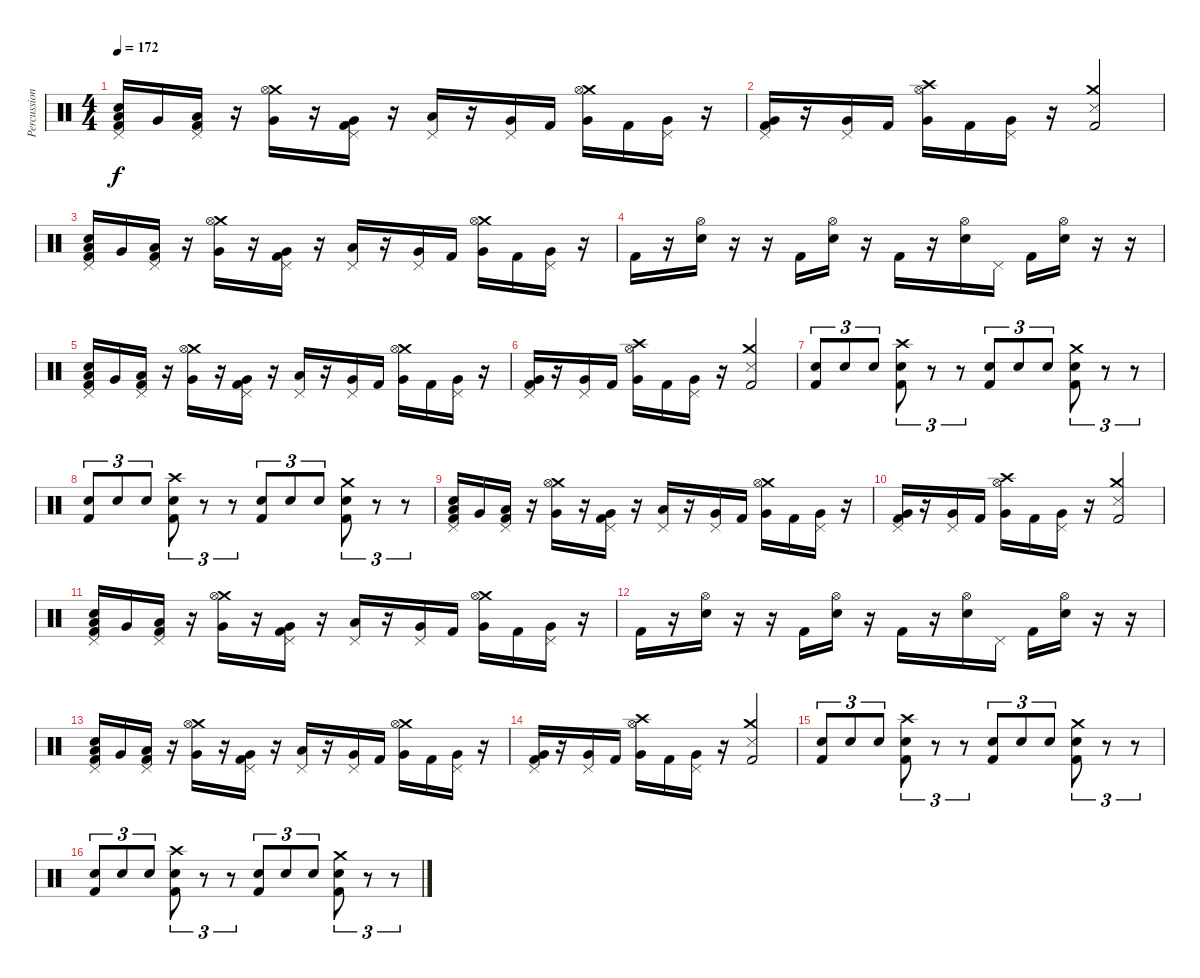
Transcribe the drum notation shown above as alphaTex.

\track ("Percussion" "Percussion") {instrument percussion}
\staff {score}
\articulation defaults
\ts (4 4)
\tempo 172
\clef neutral
\ks c
("Pedal Hi-Hat (hit)" "Low Tom (hit)" "Snare (hit) 2" "Kick (hit) 2").16{dy f} "Very Low Tom (hit)".16 ("Pedal Hi-Hat (hit)" "Low Floor Tom (hit)" "Kick (hit) 2").16 r.16 ("Crash medium (hit)" "Hi-Hat (open)" "Very Low Tom (hit)").16 r.16 ("Pedal Hi-Hat (hit)" "Very Low Tom (hit)" "Kick (hit) 2").16 r.16 ("Pedal Hi-Hat (hit)" "Low Tom (hit)").16 r.16 ("Pedal Hi-Hat (hit)" "Very Low Tom (hit)").16 "Kick (hit) 2".16 ("Crash medium (hit)" "Hi-Hat (open)" "Very Low Tom (hit)").16 "Kick (hit) 2".16 ("Pedal Hi-Hat (hit)" "Very Low Tom (hit)").16 r.16 |
("Pedal Hi-Hat (hit)" "Very Low Tom (hit)" "Kick (hit) 2").16 r.16 ("Pedal Hi-Hat (hit)" "Very Low Tom (hit)").16 "Kick (hit) 2".16 ("Crash high (hit)" "Hi-Hat (open)" "Very Low Tom (hit)").16 "Kick (hit) 2".16 ("Pedal Hi-Hat (hit)" "Very Low Tom (hit)").16 r.16 ("Crash medium (hit)" "Snare (side stick) 3" "Kick (hit) 2").2 |
("Pedal Hi-Hat (hit)" "Low Tom (hit)" "Snare (hit) 2" "Kick (hit) 2").16 "Very Low Tom (hit)".16 ("Pedal Hi-Hat (hit)" "Low Floor Tom (hit)" "Kick (hit) 2").16 r.16 ("Crash medium (hit)" "Hi-Hat (open)" "Very Low Tom (hit)").16 r.16 ("Pedal Hi-Hat (hit)" "Very Low Tom (hit)" "Kick (hit) 2").16 r.16 ("Pedal Hi-Hat (hit)" "Low Tom (hit)").16 r.16 ("Pedal Hi-Hat (hit)" "Very Low Tom (hit)").16 "Kick (hit) 2".16 ("Crash medium (hit)" "Hi-Hat (open)" "Very Low Tom (hit)").16 "Kick (hit) 2".16 ("Pedal Hi-Hat (hit)" "Very Low Tom (hit)").16 r.16 |
"Kick (hit) 2".16 r.16 ("Hi-Hat (open)" "Snare (hit) 2").16 r.16 r.16 "Kick (hit) 2".16 ("Hi-Hat (open)" "Snare (hit) 2").16 r.16 "Kick (hit) 2".16 r.16 ("Hi-Hat (open)" "Snare (hit) 2").16 "Pedal Hi-Hat (hit)".16 "Kick (hit) 2".16 ("Hi-Hat (open)" "Snare (hit) 2").16 r.16 r.16 |
("Pedal Hi-Hat (hit)" "Low Tom (hit)" "Snare (hit) 2" "Kick (hit) 2").16 "Very Low Tom (hit)".16 ("Pedal Hi-Hat (hit)" "Low Floor Tom (hit)" "Kick (hit) 2").16 r.16 ("Crash medium (hit)" "Hi-Hat (open)" "Very Low Tom (hit)").16 r.16 ("Pedal Hi-Hat (hit)" "Very Low Tom (hit)" "Kick (hit) 2").16 r.16 ("Pedal Hi-Hat (hit)" "Low Tom (hit)").16 r.16 ("Pedal Hi-Hat (hit)" "Very Low Tom (hit)").16 "Kick (hit) 2".16 ("Crash medium (hit)" "Hi-Hat (open)" "Very Low Tom (hit)").16 "Kick (hit) 2".16 ("Pedal Hi-Hat (hit)" "Very Low Tom (hit)").16 r.16 |
("Pedal Hi-Hat (hit)" "Very Low Tom (hit)" "Kick (hit) 2").16 r.16 ("Pedal Hi-Hat (hit)" "Very Low Tom (hit)").16 "Kick (hit) 2".16 ("Crash high (hit)" "Hi-Hat (open)" "Very Low Tom (hit)").16 "Kick (hit) 2".16 ("Pedal Hi-Hat (hit)" "Very Low Tom (hit)").16 r.16 ("Crash medium (hit)" "Snare (side stick) 3" "Kick (hit) 2").2 |
("Snare (hit) 2" "Kick (hit) 2").8{tu (3 2)} "Snare (hit) 2".8{tu (3 2)} "Snare (hit) 2".8{tu (3 2)} ("Crash high (hit)" "Snare (hit) 2" "Kick (hit) 2").8{tu (3 2)} r.8{tu (3 2)} r.8{tu (3 2)} ("Snare (hit) 2" "Kick (hit) 2").8{tu (3 2)} "Snare (hit) 2".8{tu (3 2)} "Snare (hit) 2".8{tu (3 2)} ("Crash medium (hit)" "Snare (hit) 2" "Kick (hit) 2").8{tu (3 2)} r.8{tu (3 2)} r.8{tu (3 2)} |
("Snare (hit) 2" "Kick (hit) 2").8{tu (3 2)} "Snare (hit) 2".8{tu (3 2)} "Snare (hit) 2".8{tu (3 2)} ("Crash high (hit)" "Snare (hit) 2" "Kick (hit) 2").8{tu (3 2)} r.8{tu (3 2)} r.8{tu (3 2)} ("Snare (hit) 2" "Kick (hit) 2").8{tu (3 2)} "Snare (hit) 2".8{tu (3 2)} "Snare (hit) 2".8{tu (3 2)} ("Crash medium (hit)" "Snare (hit) 2" "Kick (hit) 2").8{tu (3 2)} r.8{tu (3 2)} r.8{tu (3 2)} |
("Pedal Hi-Hat (hit)" "Low Tom (hit)" "Snare (hit) 2" "Kick (hit) 2").16 "Very Low Tom (hit)".16 ("Pedal Hi-Hat (hit)" "Low Floor Tom (hit)" "Kick (hit) 2").16 r.16 ("Crash medium (hit)" "Hi-Hat (open)" "Very Low Tom (hit)").16 r.16 ("Pedal Hi-Hat (hit)" "Very Low Tom (hit)" "Kick (hit) 2").16 r.16 ("Pedal Hi-Hat (hit)" "Low Tom (hit)").16 r.16 ("Pedal Hi-Hat (hit)" "Very Low Tom (hit)").16 "Kick (hit) 2".16 ("Crash medium (hit)" "Hi-Hat (open)" "Very Low Tom (hit)").16 "Kick (hit) 2".16 ("Pedal Hi-Hat (hit)" "Very Low Tom (hit)").16 r.16 |
("Pedal Hi-Hat (hit)" "Very Low Tom (hit)" "Kick (hit) 2").16 r.16 ("Pedal Hi-Hat (hit)" "Very Low Tom (hit)").16 "Kick (hit) 2".16 ("Crash high (hit)" "Hi-Hat (open)" "Very Low Tom (hit)").16 "Kick (hit) 2".16 ("Pedal Hi-Hat (hit)" "Very Low Tom (hit)").16 r.16 ("Crash medium (hit)" "Snare (side stick) 3" "Kick (hit) 2").2 |
("Pedal Hi-Hat (hit)" "Low Tom (hit)" "Snare (hit) 2" "Kick (hit) 2").16 "Very Low Tom (hit)".16 ("Pedal Hi-Hat (hit)" "Low Floor Tom (hit)" "Kick (hit) 2").16 r.16 ("Crash medium (hit)" "Hi-Hat (open)" "Very Low Tom (hit)").16 r.16 ("Pedal Hi-Hat (hit)" "Very Low Tom (hit)" "Kick (hit) 2").16 r.16 ("Pedal Hi-Hat (hit)" "Low Tom (hit)").16 r.16 ("Pedal Hi-Hat (hit)" "Very Low Tom (hit)").16 "Kick (hit) 2".16 ("Crash medium (hit)" "Hi-Hat (open)" "Very Low Tom (hit)").16 "Kick (hit) 2".16 ("Pedal Hi-Hat (hit)" "Very Low Tom (hit)").16 r.16 |
"Kick (hit) 2".16 r.16 ("Hi-Hat (open)" "Snare (hit) 2").16 r.16 r.16 "Kick (hit) 2".16 ("Hi-Hat (open)" "Snare (hit) 2").16 r.16 "Kick (hit) 2".16 r.16 ("Hi-Hat (open)" "Snare (hit) 2").16 "Pedal Hi-Hat (hit)".16 "Kick (hit) 2".16 ("Hi-Hat (open)" "Snare (hit) 2").16 r.16 r.16 |
("Pedal Hi-Hat (hit)" "Low Tom (hit)" "Snare (hit) 2" "Kick (hit) 2").16 "Very Low Tom (hit)".16 ("Pedal Hi-Hat (hit)" "Low Floor Tom (hit)" "Kick (hit) 2").16 r.16 ("Crash medium (hit)" "Hi-Hat (open)" "Very Low Tom (hit)").16 r.16 ("Pedal Hi-Hat (hit)" "Very Low Tom (hit)" "Kick (hit) 2").16 r.16 ("Pedal Hi-Hat (hit)" "Low Tom (hit)").16 r.16 ("Pedal Hi-Hat (hit)" "Very Low Tom (hit)").16 "Kick (hit) 2".16 ("Crash medium (hit)" "Hi-Hat (open)" "Very Low Tom (hit)").16 "Kick (hit) 2".16 ("Pedal Hi-Hat (hit)" "Very Low Tom (hit)").16 r.16 |
("Pedal Hi-Hat (hit)" "Very Low Tom (hit)" "Kick (hit) 2").16 r.16 ("Pedal Hi-Hat (hit)" "Very Low Tom (hit)").16 "Kick (hit) 2".16 ("Crash high (hit)" "Hi-Hat (open)" "Very Low Tom (hit)").16 "Kick (hit) 2".16 ("Pedal Hi-Hat (hit)" "Very Low Tom (hit)").16 r.16 ("Crash medium (hit)" "Snare (side stick) 3" "Kick (hit) 2").2 |
("Snare (hit) 2" "Kick (hit) 2").8{tu (3 2)} "Snare (hit) 2".8{tu (3 2)} "Snare (hit) 2".8{tu (3 2)} ("Crash high (hit)" "Snare (hit) 2" "Kick (hit) 2").8{tu (3 2)} r.8{tu (3 2)} r.8{tu (3 2)} ("Snare (hit) 2" "Kick (hit) 2").8{tu (3 2)} "Snare (hit) 2".8{tu (3 2)} "Snare (hit) 2".8{tu (3 2)} ("Crash medium (hit)" "Snare (hit) 2" "Kick (hit) 2").8{tu (3 2)} r.8{tu (3 2)} r.8{tu (3 2)} |
("Snare (hit) 2" "Kick (hit) 2").8{tu (3 2)} "Snare (hit) 2".8{tu (3 2)} "Snare (hit) 2".8{tu (3 2)} ("Crash high (hit)" "Snare (hit) 2" "Kick (hit) 2").8{tu (3 2)} r.8{tu (3 2)} r.8{tu (3 2)} ("Snare (hit) 2" "Kick (hit) 2").8{tu (3 2)} "Snare (hit) 2".8{tu (3 2)} "Snare (hit) 2".8{tu (3 2)} ("Crash medium (hit)" "Snare (hit) 2" "Kick (hit) 2").8{tu (3 2)} r.8{tu (3 2)} r.8{tu (3 2)}
